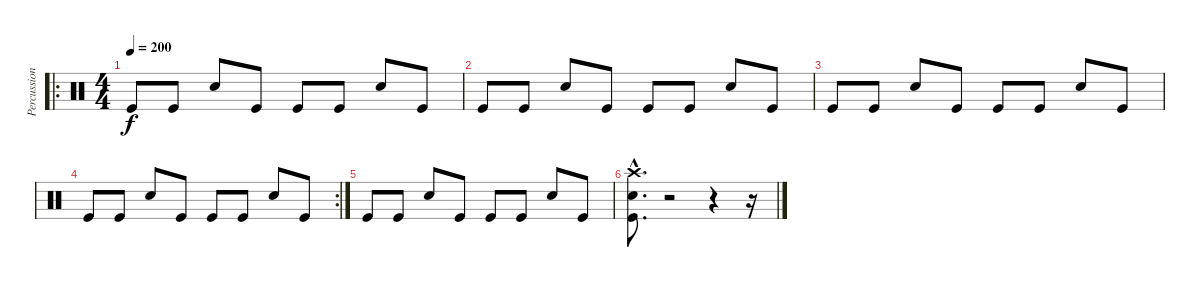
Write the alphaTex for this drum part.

\track ("Percussion" "Percussion") {instrument percussion}
\staff {score}
\articulation defaults
\ro
\ts (4 4)
\tempo 200
\clef neutral
\ks c "Kick (hit)".8{dy f} "Kick (hit)".8 "Snare (hit) 2".8 "Kick (hit)".8 "Kick (hit)".8 "Kick (hit)".8 "Snare (hit) 2".8 "Kick (hit)".8
|
"Kick (hit)".8 "Kick (hit)".8 "Snare (hit) 2".8 "Kick (hit)".8 "Kick (hit)".8 "Kick (hit)".8 "Snare (hit) 2".8 "Kick (hit)".8 |
"Kick (hit)".8 "Kick (hit)".8 "Snare (hit) 2".8 "Kick (hit)".8 "Kick (hit)".8 "Kick (hit)".8 "Snare (hit) 2".8 "Kick (hit)".8 |
\rc 2 "Kick (hit)".8 "Kick (hit)".8 "Snare (hit) 2".8 "Kick (hit)".8 "Kick (hit)".8 "Kick (hit)".8 "Snare (hit) 2".8 "Kick (hit)".8
|
"Kick (hit)".8 "Kick (hit)".8 "Snare (hit) 2".8 "Kick (hit)".8 "Kick (hit)".8 "Kick (hit)".8 "Snare (hit) 2".8 "Kick (hit)".8 |
("Crash high (hit)"{hac} "Snare (hit) 2"{hac} "Kick (hit)"{hac}).8{d} r.2 r.4 r.16
